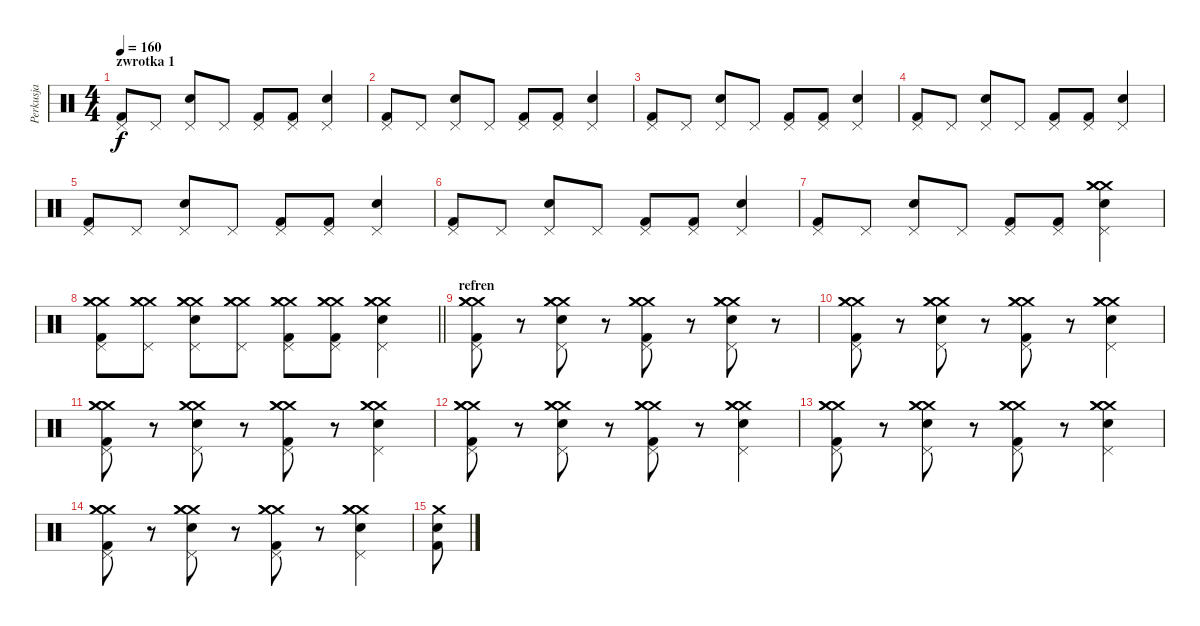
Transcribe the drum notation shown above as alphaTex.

\track ("Perkusja" "Perkusja") {instrument percussion}
\staff {score}
\articulation defaults
\ts (4 4)
\section ("" "zwrotka 1")
\tempo 160
\clef neutral
\ks c
("Pedal Hi-Hat (hit)" "Kick (hit) 2").8{dy f} "Pedal Hi-Hat (hit)".8 ("Pedal Hi-Hat (hit)" "Snare (hit) 2").8 "Pedal Hi-Hat (hit)".8 ("Pedal Hi-Hat (hit)" "Kick (hit) 2").8 ("Pedal Hi-Hat (hit)" "Kick (hit) 2").8 ("Pedal Hi-Hat (hit)" "Snare (hit) 2").4 |
("Pedal Hi-Hat (hit)" "Kick (hit) 2").8 "Pedal Hi-Hat (hit)".8 ("Pedal Hi-Hat (hit)" "Snare (hit) 2").8 "Pedal Hi-Hat (hit)".8 ("Pedal Hi-Hat (hit)" "Kick (hit) 2").8 ("Pedal Hi-Hat (hit)" "Kick (hit) 2").8 ("Pedal Hi-Hat (hit)" "Snare (hit) 2").4 |
("Pedal Hi-Hat (hit)" "Kick (hit) 2").8 "Pedal Hi-Hat (hit)".8 ("Pedal Hi-Hat (hit)" "Snare (hit) 2").8 "Pedal Hi-Hat (hit)".8 ("Pedal Hi-Hat (hit)" "Kick (hit) 2").8 ("Pedal Hi-Hat (hit)" "Kick (hit) 2").8 ("Pedal Hi-Hat (hit)" "Snare (hit) 2").4 |
("Pedal Hi-Hat (hit)" "Kick (hit) 2").8 "Pedal Hi-Hat (hit)".8 ("Pedal Hi-Hat (hit)" "Snare (hit) 2").8 "Pedal Hi-Hat (hit)".8 ("Pedal Hi-Hat (hit)" "Kick (hit) 2").8 ("Pedal Hi-Hat (hit)" "Kick (hit) 2").8 ("Pedal Hi-Hat (hit)" "Snare (hit) 2").4 |
("Pedal Hi-Hat (hit)" "Kick (hit) 2").8 "Pedal Hi-Hat (hit)".8 ("Pedal Hi-Hat (hit)" "Snare (hit) 2").8 "Pedal Hi-Hat (hit)".8 ("Pedal Hi-Hat (hit)" "Kick (hit) 2").8 ("Pedal Hi-Hat (hit)" "Kick (hit) 2").8 ("Pedal Hi-Hat (hit)" "Snare (hit) 2").4 |
("Pedal Hi-Hat (hit)" "Kick (hit) 2").8 "Pedal Hi-Hat (hit)".8 ("Pedal Hi-Hat (hit)" "Snare (hit) 2").8 "Pedal Hi-Hat (hit)".8 ("Pedal Hi-Hat (hit)" "Kick (hit) 2").8 ("Pedal Hi-Hat (hit)" "Kick (hit) 2").8 ("Pedal Hi-Hat (hit)" "Snare (hit) 2").4 |
("Pedal Hi-Hat (hit)" "Kick (hit) 2").8 "Pedal Hi-Hat (hit)".8 ("Pedal Hi-Hat (hit)" "Snare (hit) 2").8 "Pedal Hi-Hat (hit)".8 ("Pedal Hi-Hat (hit)" "Kick (hit) 2").8 ("Pedal Hi-Hat (hit)" "Kick (hit) 2").8 ("Pedal Hi-Hat (hit)" "Snare (hit) 2" "Crash medium (hit)" "Crash medium (hit)" "Crash medium (hit)").4 |
\barLineRight lightlight
("Pedal Hi-Hat (hit)" "Kick (hit) 2" "Crash medium (hit)" "Crash medium (hit)" "Crash medium (hit)").8 ("Pedal Hi-Hat (hit)" "Crash medium (hit)" "Crash medium (hit)" "Crash medium (hit)").8 ("Pedal Hi-Hat (hit)" "Snare (hit) 2" "Crash medium (hit)" "Crash medium (hit)" "Crash medium (hit)").8 ("Pedal Hi-Hat (hit)" "Crash medium (hit)" "Crash medium (hit)" "Crash medium (hit)").8 ("Pedal Hi-Hat (hit)" "Kick (hit) 2" "Crash medium (hit)" "Crash medium (hit)" "Crash medium (hit)").8 ("Pedal Hi-Hat (hit)" "Kick (hit) 2" "Crash medium (hit)" "Crash medium (hit)" "Crash medium (hit)").8 ("Pedal Hi-Hat (hit)" "Snare (hit) 2" "Crash medium (hit)" "Crash medium (hit)" "Crash medium (hit)").4 |
\section ("" "refren")
("Pedal Hi-Hat (hit)" "Kick (hit) 2" "Crash medium (hit)" "Crash medium (hit)" "Crash medium (hit)").8 r.8 ("Pedal Hi-Hat (hit)" "Snare (hit) 2" "Crash medium (hit)" "Crash medium (hit)" "Crash medium (hit)").8 r.8 ("Pedal Hi-Hat (hit)" "Kick (hit) 2" "Crash medium (hit)" "Crash medium (hit)" "Crash medium (hit)").8 r.8 ("Pedal Hi-Hat (hit)" "Snare (hit) 2" "Crash medium (hit)" "Crash medium (hit)" "Crash medium (hit)").8 r.8 |
("Pedal Hi-Hat (hit)" "Kick (hit) 2" "Crash medium (hit)" "Crash medium (hit)" "Crash medium (hit)").8 r.8 ("Pedal Hi-Hat (hit)" "Snare (hit) 2" "Crash medium (hit)" "Crash medium (hit)" "Crash medium (hit)").8 r.8 ("Pedal Hi-Hat (hit)" "Kick (hit) 2" "Crash medium (hit)" "Crash medium (hit)" "Crash medium (hit)").8 r.8 ("Pedal Hi-Hat (hit)" "Snare (hit) 2" "Crash medium (hit)" "Crash medium (hit)" "Crash medium (hit)").4 |
("Pedal Hi-Hat (hit)" "Kick (hit) 2" "Crash medium (hit)" "Crash medium (hit)" "Crash medium (hit)").8 r.8 ("Pedal Hi-Hat (hit)" "Snare (hit) 2" "Crash medium (hit)" "Crash medium (hit)" "Crash medium (hit)").8 r.8 ("Pedal Hi-Hat (hit)" "Kick (hit) 2" "Crash medium (hit)" "Crash medium (hit)" "Crash medium (hit)").8 r.8 ("Pedal Hi-Hat (hit)" "Snare (hit) 2" "Crash medium (hit)" "Crash medium (hit)" "Crash medium (hit)").4 |
("Pedal Hi-Hat (hit)" "Kick (hit) 2" "Crash medium (hit)" "Crash medium (hit)" "Crash medium (hit)").8 r.8 ("Pedal Hi-Hat (hit)" "Snare (hit) 2" "Crash medium (hit)" "Crash medium (hit)" "Crash medium (hit)").8 r.8 ("Pedal Hi-Hat (hit)" "Kick (hit) 2" "Crash medium (hit)" "Crash medium (hit)" "Crash medium (hit)").8 r.8 ("Pedal Hi-Hat (hit)" "Snare (hit) 2" "Crash medium (hit)" "Crash medium (hit)" "Crash medium (hit)").4 |
("Pedal Hi-Hat (hit)" "Kick (hit) 2" "Crash medium (hit)" "Crash medium (hit)" "Crash medium (hit)").8 r.8 ("Pedal Hi-Hat (hit)" "Snare (hit) 2" "Crash medium (hit)" "Crash medium (hit)" "Crash medium (hit)").8 r.8 ("Pedal Hi-Hat (hit)" "Kick (hit) 2" "Crash medium (hit)" "Crash medium (hit)" "Crash medium (hit)").8 r.8 ("Pedal Hi-Hat (hit)" "Snare (hit) 2" "Crash medium (hit)" "Crash medium (hit)" "Crash medium (hit)").4 |
("Pedal Hi-Hat (hit)" "Kick (hit) 2" "Crash medium (hit)" "Crash medium (hit)" "Crash medium (hit)").8 r.8 ("Pedal Hi-Hat (hit)" "Snare (hit) 2" "Crash medium (hit)" "Crash medium (hit)" "Crash medium (hit)").8 r.8 ("Pedal Hi-Hat (hit)" "Kick (hit) 2" "Crash medium (hit)" "Crash medium (hit)" "Crash medium (hit)").8 r.8 ("Pedal Hi-Hat (hit)" "Snare (hit) 2" "Crash medium (hit)" "Crash medium (hit)" "Crash medium (hit)").4 |
("Crash medium (hit)" "Kick (hit) 2" "Snare (hit) 2").8
